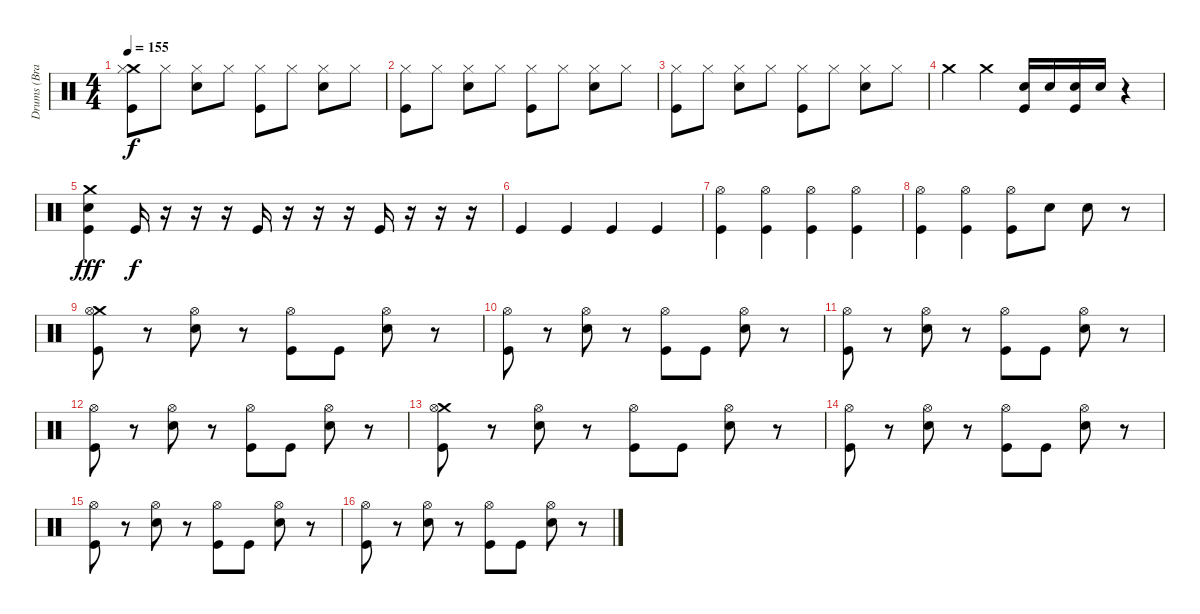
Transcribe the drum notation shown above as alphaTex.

\track ("Drums (Bradie Webb)" "Drums (Bra") {instrument percussion}
\staff {score}
\articulation defaults
\ts (4 4)
\tempo 155
\clef neutral
\ks c
("Crash medium (hit)" "Hi-Hat (closed)" "Kick (hit)").8{dy f} "Hi-Hat (closed)".8 ("Hi-Hat (closed)" "Snare (hit) 2").8 "Hi-Hat (closed)".8 ("Hi-Hat (closed)" "Kick (hit)").8 "Hi-Hat (closed)".8 ("Hi-Hat (closed)" "Snare (hit) 2").8 "Hi-Hat (closed)".8 |
("Hi-Hat (closed)" "Kick (hit)").8 "Hi-Hat (closed)".8 ("Hi-Hat (closed)" "Snare (hit) 2").8 "Hi-Hat (closed)".8 ("Hi-Hat (closed)" "Kick (hit)").8 "Hi-Hat (closed)".8 ("Hi-Hat (closed)" "Snare (hit) 2").8 "Hi-Hat (closed)".8 |
("Hi-Hat (closed)" "Kick (hit)").8 "Hi-Hat (closed)".8 ("Hi-Hat (closed)" "Snare (hit) 2").8 "Hi-Hat (closed)".8 ("Hi-Hat (closed)" "Kick (hit)").8 "Hi-Hat (closed)".8 ("Hi-Hat (closed)" "Snare (hit) 2").8 "Hi-Hat (closed)".8 |
"Crash medium (hit)".4 "Crash medium (hit)".4 ("Snare (hit) 2" "Kick (hit)").16 "Snare (hit) 2".16 ("Snare (hit) 2" "Kick (hit)").16 "Snare (hit) 2".16 r.4 |
("Crash medium (hit)" "Kick (hit)" "Snare (hit) 2").4{dy fff} "Kick (hit)".16{dy f} r.16 r.16 r.16 "Kick (hit)".16 r.16 r.16 r.16 "Kick (hit)".16 r.16 r.16 r.16 |
"Kick (hit)".4 "Kick (hit)".4 "Kick (hit)".4 "Kick (hit)".4 |
("Kick (hit)" "Hi-Hat (open)").4 ("Kick (hit)" "Hi-Hat (open)").4 ("Kick (hit)" "Hi-Hat (open)").4 ("Kick (hit)" "Hi-Hat (open)").4 |
("Kick (hit)" "Hi-Hat (open)").4 ("Kick (hit)" "Hi-Hat (open)").4 ("Kick (hit)" "Hi-Hat (open)").8 "Snare (hit) 2".8 "Snare (hit) 2".8 r.8 |
("Crash medium (hit)" "Hi-Hat (open)" "Kick (hit)").8 r.8 ("Hi-Hat (open)" "Snare (hit) 2").8 r.8 ("Hi-Hat (open)" "Kick (hit)").8 "Kick (hit)".8 ("Hi-Hat (open)" "Snare (hit) 2").8 r.8 |
("Hi-Hat (open)" "Kick (hit)").8 r.8 ("Hi-Hat (open)" "Snare (hit) 2").8 r.8 ("Hi-Hat (open)" "Kick (hit)").8 "Kick (hit)".8 ("Hi-Hat (open)" "Snare (hit) 2").8 r.8 |
("Hi-Hat (open)" "Kick (hit)").8 r.8 ("Hi-Hat (open)" "Snare (hit) 2").8 r.8 ("Hi-Hat (open)" "Kick (hit)").8 "Kick (hit)".8 ("Hi-Hat (open)" "Snare (hit) 2").8 r.8 |
("Hi-Hat (open)" "Kick (hit)").8 r.8 ("Hi-Hat (open)" "Snare (hit) 2").8 r.8 ("Hi-Hat (open)" "Kick (hit)").8 "Kick (hit)".8 ("Hi-Hat (open)" "Snare (hit) 2").8 r.8 |
("Crash medium (hit)" "Hi-Hat (open)" "Kick (hit)").8 r.8 ("Hi-Hat (open)" "Snare (hit) 2").8 r.8 ("Hi-Hat (open)" "Kick (hit)").8 "Kick (hit)".8 ("Hi-Hat (open)" "Snare (hit) 2").8 r.8 |
("Hi-Hat (open)" "Kick (hit)").8 r.8 ("Hi-Hat (open)" "Snare (hit) 2").8 r.8 ("Hi-Hat (open)" "Kick (hit)").8 "Kick (hit)".8 ("Hi-Hat (open)" "Snare (hit) 2").8 r.8 |
("Hi-Hat (open)" "Kick (hit)").8 r.8 ("Hi-Hat (open)" "Snare (hit) 2").8 r.8 ("Hi-Hat (open)" "Kick (hit)").8 "Kick (hit)".8 ("Hi-Hat (open)" "Snare (hit) 2").8 r.8 |
("Hi-Hat (open)" "Kick (hit)").8 r.8 ("Hi-Hat (open)" "Snare (hit) 2").8 r.8 ("Hi-Hat (open)" "Kick (hit)").8 "Kick (hit)".8 ("Hi-Hat (open)" "Snare (hit) 2").8 r.8
